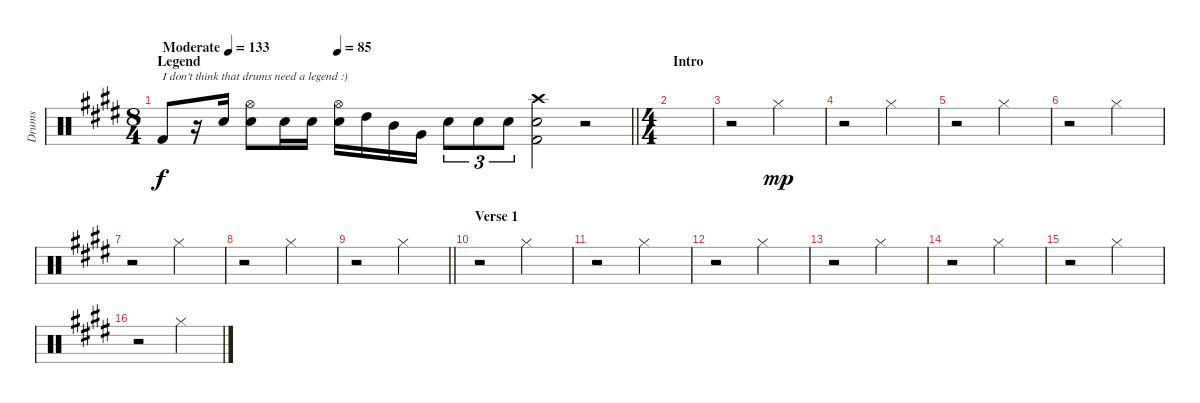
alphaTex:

\track ("Drums" "Drums") {instrument percussion}
\staff {score}
\articulation defaults
\ts (8 4)
\section ("" "Legend")
\tempo (133 "Moderate")
\tempo (75 0.375)
\tempo (85 0.375)
\tempo (133 "Moderate")
\clef neutral
\barLineRight lightlight
\ks e "Kick (hit) 2".8{txt "I don't think that drums need a legend :)" dy f}
r.16 "Electric Snare (hit)".16 ("Hi-Hat (open)" "Electric Snare (hit)").8 "Electric Snare (hit)".16 "Electric Snare (hit)".16 ("Hi-Hat (open)" "Electric Snare (hit)").16 "High Tom (hit)".16 "Mid Tom (hit)".16 "Very Low Tom (hit)".16 "Electric Snare (hit)".8{tu (3 2)} "Electric Snare (hit)".8{tu (3 2)} "Electric Snare (hit)".8{tu (3 2)} ("Crash high (hit)" "Electric Snare (hit)" "Kick (hit) 2").2 r.2 |
\ts (4 4)
\section ("" "Intro")
|
r.2 "Hi-Hat (closed)".2{dy mp} |
r.2 "Hi-Hat (closed)".2 |
r.2 "Hi-Hat (closed)".2 |
r.2 "Hi-Hat (closed)".2 |
r.2 "Hi-Hat (closed)".2 |
r.2 "Hi-Hat (closed)".2 |
\barLineRight lightlight
r.2 "Hi-Hat (closed)".2 |
\section ("" "Verse 1")
r.2 "Hi-Hat (closed)".2 |
r.2 "Hi-Hat (closed)".2 |
r.2 "Hi-Hat (closed)".2 |
r.2 "Hi-Hat (closed)".2 |
r.2 "Hi-Hat (closed)".2 |
r.2 "Hi-Hat (closed)".2 |
r.2 "Hi-Hat (closed)".2
